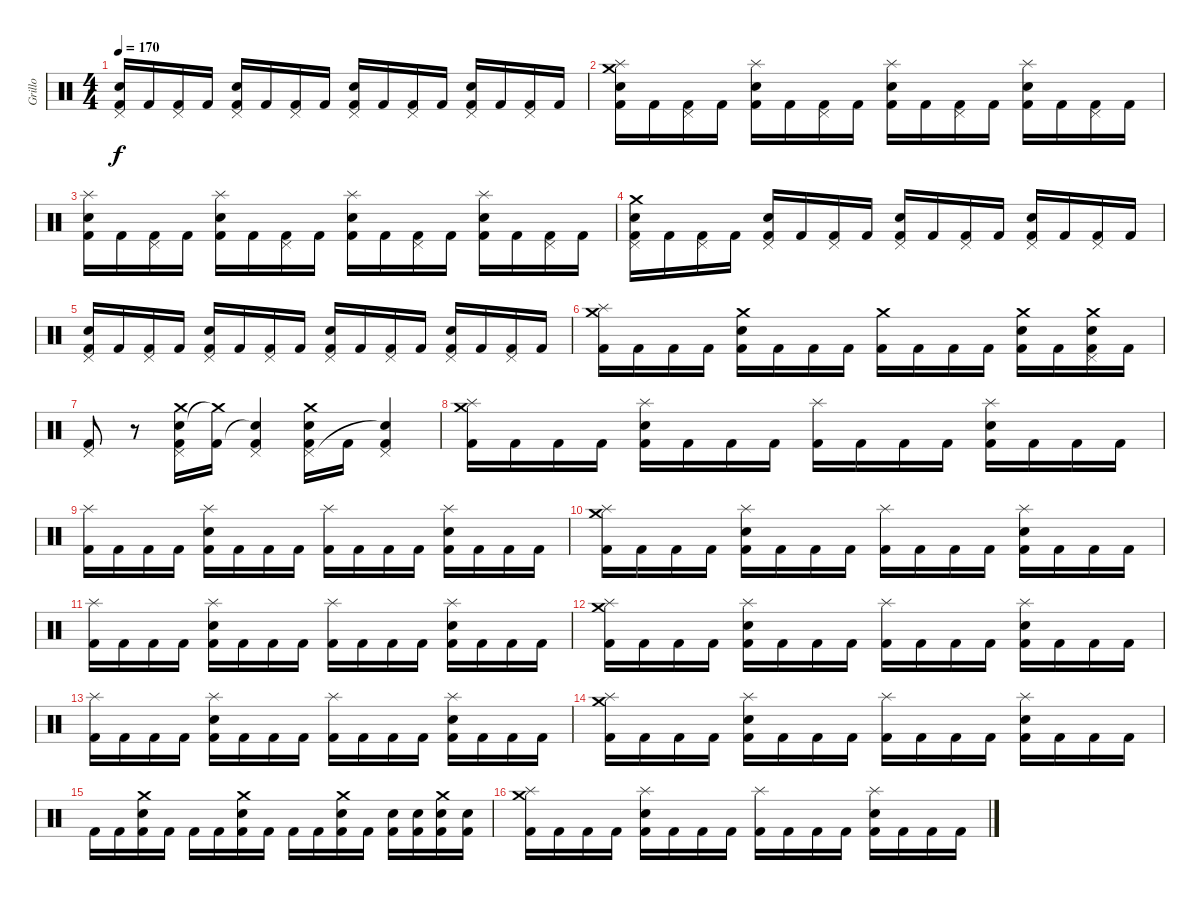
\track ("Grillo" "Grillo") {instrument percussion}
\staff {score}
\articulation defaults
\ts (4 4)
\tempo 170
\clef neutral
\ks c
("Electric Snare (hit)" "Pedal Hi-Hat (hit)" "Kick (hit) 2").16{dy f} "Kick (hit) 2".16 ("Pedal Hi-Hat (hit)" "Kick (hit) 2").16 "Kick (hit) 2".16 ("Electric Snare (hit)" "Pedal Hi-Hat (hit)" "Kick (hit) 2").16 "Kick (hit) 2".16 ("Pedal Hi-Hat (hit)" "Kick (hit) 2").16 "Kick (hit) 2".16 ("Electric Snare (hit)" "Pedal Hi-Hat (hit)" "Kick (hit) 2").16 "Kick (hit) 2".16 ("Pedal Hi-Hat (hit)" "Kick (hit) 2").16 "Kick (hit) 2".16 ("Electric Snare (hit)" "Pedal Hi-Hat (hit)" "Kick (hit) 2").16 "Kick (hit) 2".16 ("Pedal Hi-Hat (hit)" "Kick (hit) 2").16 "Kick (hit) 2".16 |
("Electric Snare (hit)" "Splash (hit)" "Crash medium (hit)" "Kick (hit) 2").16 "Kick (hit) 2".16 ("Pedal Hi-Hat (hit)" "Kick (hit) 2").16 "Kick (hit) 2".16 ("Electric Snare (hit)" "Splash (hit)" "Kick (hit) 2").16 "Kick (hit) 2".16 ("Pedal Hi-Hat (hit)" "Kick (hit) 2").16 "Kick (hit) 2".16 ("Electric Snare (hit)" "Splash (hit)" "Kick (hit) 2").16 "Kick (hit) 2".16 ("Pedal Hi-Hat (hit)" "Kick (hit) 2").16 "Kick (hit) 2".16 ("Electric Snare (hit)" "Splash (hit)" "Kick (hit) 2").16 "Kick (hit) 2".16 ("Pedal Hi-Hat (hit)" "Kick (hit) 2").16 "Kick (hit) 2".16 |
("Electric Snare (hit)" "Splash (hit)" "Kick (hit) 2").16 "Kick (hit) 2".16 ("Pedal Hi-Hat (hit)" "Kick (hit) 2").16 "Kick (hit) 2".16 ("Electric Snare (hit)" "Splash (hit)" "Kick (hit) 2").16 "Kick (hit) 2".16 ("Pedal Hi-Hat (hit)" "Kick (hit) 2").16 "Kick (hit) 2".16 ("Electric Snare (hit)" "Splash (hit)" "Kick (hit) 2").16 "Kick (hit) 2".16 ("Pedal Hi-Hat (hit)" "Kick (hit) 2").16 "Kick (hit) 2".16 ("Electric Snare (hit)" "Splash (hit)" "Kick (hit) 2").16 "Kick (hit) 2".16 ("Pedal Hi-Hat (hit)" "Kick (hit) 2").16 "Kick (hit) 2".16 |
("Electric Snare (hit)" "Pedal Hi-Hat (hit)" "Crash medium (hit)" "Kick (hit) 2").16 "Kick (hit) 2".16 ("Pedal Hi-Hat (hit)" "Kick (hit) 2").16 "Kick (hit) 2".16 ("Electric Snare (hit)" "Pedal Hi-Hat (hit)" "Kick (hit) 2").16 "Kick (hit) 2".16 ("Pedal Hi-Hat (hit)" "Kick (hit) 2").16 "Kick (hit) 2".16 ("Electric Snare (hit)" "Pedal Hi-Hat (hit)" "Kick (hit) 2").16 "Kick (hit) 2".16 ("Pedal Hi-Hat (hit)" "Kick (hit) 2").16 "Kick (hit) 2".16 ("Electric Snare (hit)" "Pedal Hi-Hat (hit)" "Kick (hit) 2").16 "Kick (hit) 2".16 ("Pedal Hi-Hat (hit)" "Kick (hit) 2").16 "Kick (hit) 2".16 |
("Electric Snare (hit)" "Pedal Hi-Hat (hit)" "Kick (hit) 2").16 "Kick (hit) 2".16 ("Pedal Hi-Hat (hit)" "Kick (hit) 2").16 "Kick (hit) 2".16 ("Electric Snare (hit)" "Pedal Hi-Hat (hit)" "Kick (hit) 2").16 "Kick (hit) 2".16 ("Pedal Hi-Hat (hit)" "Kick (hit) 2").16 "Kick (hit) 2".16 ("Electric Snare (hit)" "Pedal Hi-Hat (hit)" "Kick (hit) 2").16 "Kick (hit) 2".16 ("Pedal Hi-Hat (hit)" "Kick (hit) 2").16 "Kick (hit) 2".16 ("Electric Snare (hit)" "Pedal Hi-Hat (hit)" "Kick (hit) 2").16 "Kick (hit) 2".16 ("Pedal Hi-Hat (hit)" "Kick (hit) 2").16 "Kick (hit) 2".16 |
("Splash (hit)" "Crash medium (hit)" "Kick (hit) 2").16 "Kick (hit) 2".16 "Kick (hit) 2".16 "Kick (hit) 2".16 ("Electric Snare (hit)" "Crash medium (hit)" "Kick (hit) 2").16 "Kick (hit) 2".16 "Kick (hit) 2".16 "Kick (hit) 2".16 ("Crash medium (hit)" "Kick (hit) 2").16 "Kick (hit) 2".16 "Kick (hit) 2".16 "Kick (hit) 2".16 ("Electric Snare (hit)" "Crash medium (hit)" "Kick (hit) 2").16 "Kick (hit) 2".16 ("Electric Snare (hit)" "Pedal Hi-Hat (hit)" "Crash medium (hit)" "Kick (hit) 2").16 "Kick (hit) 2".16 |
("Pedal Hi-Hat (hit)" "Kick (hit) 2").8 r.8 ("Electric Snare (hit)" "Pedal Hi-Hat (hit)" "Crash medium (hit)" "Kick (hit) 2").16 ("Crash medium (hit)"{t} "Kick (hit) 2").16 ("Pedal Hi-Hat (hit)" "Snare (hit)"{t} "Kick (hit) 2").4 ("Electric Snare (hit)" "Pedal Hi-Hat (hit)" "Crash medium (hit)" "Kick (hit) 2").16 "Kick (hit) 2".16 ("Pedal Hi-Hat (hit)" "Snare (hit)"{t} "Kick (hit) 2").4 |
("Splash (hit)" "Crash medium (hit)" "Kick (hit) 2").16 "Kick (hit) 2".16 "Kick (hit) 2".16 "Kick (hit) 2".16 ("Electric Snare (hit)" "Splash (hit)" "Kick (hit) 2").16 "Kick (hit) 2".16 "Kick (hit) 2".16 "Kick (hit) 2".16 ("Splash (hit)" "Kick (hit) 2").16 "Kick (hit) 2".16 "Kick (hit) 2".16 "Kick (hit) 2".16 ("Electric Snare (hit)" "Splash (hit)" "Kick (hit) 2").16 "Kick (hit) 2".16 "Kick (hit) 2".16 "Kick (hit) 2".16 |
("Splash (hit)" "Kick (hit) 2").16 "Kick (hit) 2".16 "Kick (hit) 2".16 "Kick (hit) 2".16 ("Electric Snare (hit)" "Splash (hit)" "Kick (hit) 2").16 "Kick (hit) 2".16 "Kick (hit) 2".16 "Kick (hit) 2".16 ("Splash (hit)" "Kick (hit) 2").16 "Kick (hit) 2".16 "Kick (hit) 2".16 "Kick (hit) 2".16 ("Electric Snare (hit)" "Splash (hit)" "Kick (hit) 2").16 "Kick (hit) 2".16 "Kick (hit) 2".16 "Kick (hit) 2".16 |
("Splash (hit)" "Crash medium (hit)" "Kick (hit) 2").16 "Kick (hit) 2".16 "Kick (hit) 2".16 "Kick (hit) 2".16 ("Electric Snare (hit)" "Splash (hit)" "Kick (hit) 2").16 "Kick (hit) 2".16 "Kick (hit) 2".16 "Kick (hit) 2".16 ("Splash (hit)" "Kick (hit) 2").16 "Kick (hit) 2".16 "Kick (hit) 2".16 "Kick (hit) 2".16 ("Electric Snare (hit)" "Splash (hit)" "Kick (hit) 2").16 "Kick (hit) 2".16 "Kick (hit) 2".16 "Kick (hit) 2".16 |
("Splash (hit)" "Kick (hit) 2").16 "Kick (hit) 2".16 "Kick (hit) 2".16 "Kick (hit) 2".16 ("Electric Snare (hit)" "Splash (hit)" "Kick (hit) 2").16 "Kick (hit) 2".16 "Kick (hit) 2".16 "Kick (hit) 2".16 ("Splash (hit)" "Kick (hit) 2").16 "Kick (hit) 2".16 "Kick (hit) 2".16 "Kick (hit) 2".16 ("Electric Snare (hit)" "Splash (hit)" "Kick (hit) 2").16 "Kick (hit) 2".16 "Kick (hit) 2".16 "Kick (hit) 2".16 |
("Splash (hit)" "Crash medium (hit)" "Kick (hit) 2").16 "Kick (hit) 2".16 "Kick (hit) 2".16 "Kick (hit) 2".16 ("Electric Snare (hit)" "Splash (hit)" "Kick (hit) 2").16 "Kick (hit) 2".16 "Kick (hit) 2".16 "Kick (hit) 2".16 ("Splash (hit)" "Kick (hit) 2").16 "Kick (hit) 2".16 "Kick (hit) 2".16 "Kick (hit) 2".16 ("Electric Snare (hit)" "Splash (hit)" "Kick (hit) 2").16 "Kick (hit) 2".16 "Kick (hit) 2".16 "Kick (hit) 2".16 |
("Splash (hit)" "Kick (hit) 2").16 "Kick (hit) 2".16 "Kick (hit) 2".16 "Kick (hit) 2".16 ("Electric Snare (hit)" "Splash (hit)" "Kick (hit) 2").16 "Kick (hit) 2".16 "Kick (hit) 2".16 "Kick (hit) 2".16 ("Splash (hit)" "Kick (hit) 2").16 "Kick (hit) 2".16 "Kick (hit) 2".16 "Kick (hit) 2".16 ("Electric Snare (hit)" "Splash (hit)" "Kick (hit) 2").16 "Kick (hit) 2".16 "Kick (hit) 2".16 "Kick (hit) 2".16 |
("Splash (hit)" "Crash medium (hit)" "Kick (hit) 2").16 "Kick (hit) 2".16 "Kick (hit) 2".16 "Kick (hit) 2".16 ("Electric Snare (hit)" "Splash (hit)" "Kick (hit) 2").16 "Kick (hit) 2".16 "Kick (hit) 2".16 "Kick (hit) 2".16 ("Splash (hit)" "Kick (hit) 2").16 "Kick (hit) 2".16 "Kick (hit) 2".16 "Kick (hit) 2".16 ("Electric Snare (hit)" "Splash (hit)" "Kick (hit) 2").16 "Kick (hit) 2".16 "Kick (hit) 2".16 "Kick (hit) 2".16 |
"Kick (hit) 2".16 "Kick (hit) 2".16 ("Electric Snare (hit)" "Crash medium (hit)" "Kick (hit) 2").16 "Kick (hit) 2".16 "Kick (hit) 2".16 "Kick (hit) 2".16 ("Electric Snare (hit)" "Crash medium (hit)" "Kick (hit) 2").16 "Kick (hit) 2".16 "Kick (hit) 2".16 "Kick (hit) 2".16 ("Electric Snare (hit)" "Crash medium (hit)" "Kick (hit) 2").16 "Kick (hit) 2".16 ("Electric Snare (hit)" "Kick (hit) 2").16 ("Electric Snare (hit)" "Kick (hit) 2").16 ("Electric Snare (hit)" "Crash medium (hit)" "Kick (hit) 2").16 ("Electric Snare (hit)" "Kick (hit) 2").16 |
("Splash (hit)" "Crash medium (hit)" "Kick (hit) 2").16 "Kick (hit) 2".16 "Kick (hit) 2".16 "Kick (hit) 2".16 ("Electric Snare (hit)" "Splash (hit)" "Kick (hit) 2").16 "Kick (hit) 2".16 "Kick (hit) 2".16 "Kick (hit) 2".16 ("Splash (hit)" "Kick (hit) 2").16 "Kick (hit) 2".16 "Kick (hit) 2".16 "Kick (hit) 2".16 ("Electric Snare (hit)" "Splash (hit)" "Kick (hit) 2").16 "Kick (hit) 2".16 "Kick (hit) 2".16 "Kick (hit) 2".16
